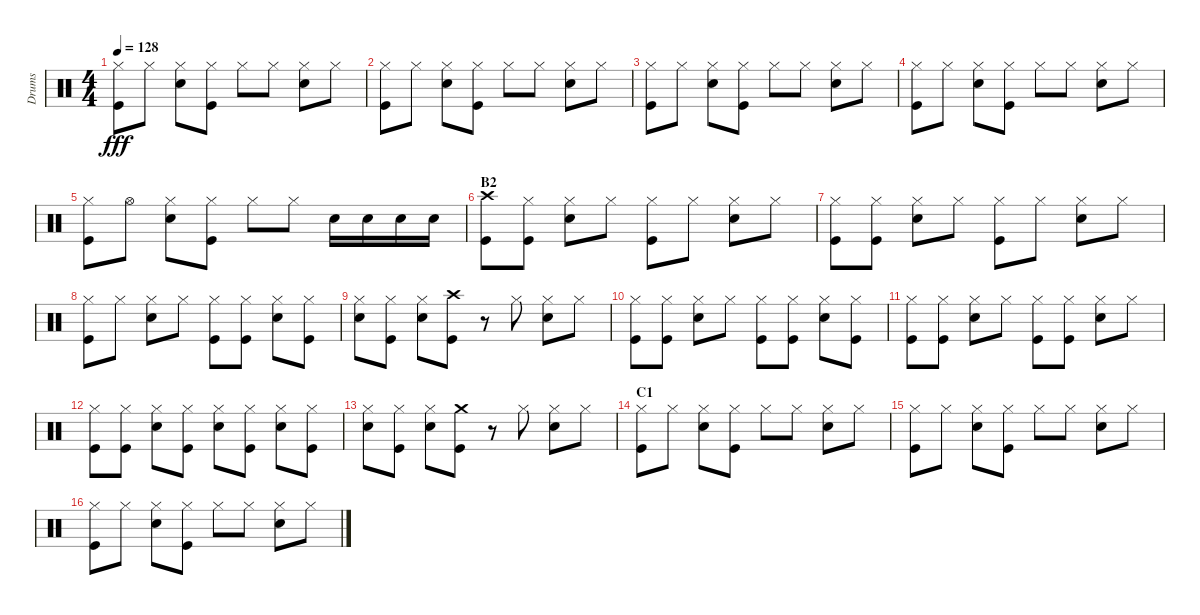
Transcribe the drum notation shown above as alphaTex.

\track ("Drums" "Drums") {instrument percussion}
\staff {score}
\articulation defaults
\ts (4 4)
\tempo 128
\clef neutral
\ks c
("Hi-Hat (closed)" "Kick (hit)").8{dy fff} "Hi-Hat (closed)".8 ("Hi-Hat (closed)" "Snare (hit) 2").8 ("Hi-Hat (closed)" "Kick (hit)").8 "Hi-Hat (closed)".8 "Hi-Hat (closed)".8 ("Hi-Hat (closed)" "Snare (hit) 2").8 "Hi-Hat (closed)".8 |
("Hi-Hat (closed)" "Kick (hit)").8 "Hi-Hat (closed)".8 ("Hi-Hat (closed)" "Snare (hit) 2").8 ("Hi-Hat (closed)" "Kick (hit)").8 "Hi-Hat (closed)".8 "Hi-Hat (closed)".8 ("Hi-Hat (closed)" "Snare (hit) 2").8 "Hi-Hat (closed)".8 |
("Hi-Hat (closed)" "Kick (hit)").8 "Hi-Hat (closed)".8 ("Hi-Hat (closed)" "Snare (hit) 2").8 ("Hi-Hat (closed)" "Kick (hit)").8 "Hi-Hat (closed)".8 "Hi-Hat (closed)".8 ("Hi-Hat (closed)" "Snare (hit) 2").8 "Hi-Hat (closed)".8 |
("Hi-Hat (closed)" "Kick (hit)").8 "Hi-Hat (closed)".8 ("Hi-Hat (closed)" "Snare (hit) 2").8 ("Hi-Hat (closed)" "Kick (hit)").8 "Hi-Hat (closed)".8 "Hi-Hat (closed)".8 ("Hi-Hat (closed)" "Snare (hit) 2").8 "Hi-Hat (closed)".8 |
("Hi-Hat (closed)" "Kick (hit)").8 "Hi-Hat (open)".8 ("Hi-Hat (closed)" "Snare (hit) 2").8 ("Hi-Hat (closed)" "Kick (hit)").8 "Hi-Hat (closed)".8 "Hi-Hat (closed)".8 "Snare (hit) 2".16 "Snare (hit) 2".16 "Snare (hit) 2".16 "Snare (hit) 2".16 |
\section ("" "B2")
("Crash high (hit)" "Kick (hit)").8 ("Hi-Hat (closed)" "Kick (hit)").8 ("Hi-Hat (closed)" "Snare (hit) 2").8 "Hi-Hat (closed)".8 ("Hi-Hat (closed)" "Kick (hit)").8 "Hi-Hat (closed)".8 ("Hi-Hat (closed)" "Snare (hit) 2").8 "Hi-Hat (closed)".8 |
("Hi-Hat (closed)" "Kick (hit)").8 ("Hi-Hat (closed)" "Kick (hit)").8 ("Hi-Hat (closed)" "Snare (hit) 2").8 "Hi-Hat (closed)".8 ("Hi-Hat (closed)" "Kick (hit)").8 "Hi-Hat (closed)".8 ("Hi-Hat (closed)" "Snare (hit) 2").8 "Hi-Hat (closed)".8 |
("Hi-Hat (closed)" "Kick (hit)").8 "Hi-Hat (closed)".8 ("Hi-Hat (closed)" "Snare (hit) 2").8 "Hi-Hat (closed)".8 ("Hi-Hat (closed)" "Kick (hit)").8 ("Hi-Hat (closed)" "Kick (hit)").8 ("Hi-Hat (closed)" "Snare (hit) 2").8 ("Hi-Hat (closed)" "Kick (hit)").8 |
("Hi-Hat (closed)" "Snare (hit) 2").8 ("Hi-Hat (closed)" "Kick (hit)").8 ("Hi-Hat (closed)" "Snare (hit) 2").8 ("Crash high (hit)" "Kick (hit)").8 r.8 "Hi-Hat (closed)".8 ("Hi-Hat (closed)" "Snare (hit) 2").8 "Hi-Hat (closed)".8 |
("Hi-Hat (closed)" "Kick (hit)").8 ("Hi-Hat (closed)" "Kick (hit)").8 ("Hi-Hat (closed)" "Snare (hit) 2").8 "Hi-Hat (closed)".8 ("Hi-Hat (closed)" "Kick (hit)").8 ("Hi-Hat (closed)" "Kick (hit)").8 ("Hi-Hat (closed)" "Snare (hit) 2").8 ("Hi-Hat (closed)" "Kick (hit)").8 |
("Hi-Hat (closed)" "Kick (hit)").8 ("Hi-Hat (closed)" "Kick (hit)").8 ("Hi-Hat (closed)" "Snare (hit) 2").8 "Hi-Hat (closed)".8 ("Hi-Hat (closed)" "Kick (hit)").8 ("Hi-Hat (closed)" "Kick (hit)").8 ("Hi-Hat (closed)" "Snare (hit) 2").8 "Hi-Hat (closed)".8 |
("Hi-Hat (closed)" "Kick (hit)").8 ("Hi-Hat (closed)" "Kick (hit)").8 ("Hi-Hat (closed)" "Snare (hit) 2").8 ("Hi-Hat (closed)" "Kick (hit)").8 ("Hi-Hat (closed)" "Snare (hit) 2").8 ("Hi-Hat (closed)" "Kick (hit)").8 ("Hi-Hat (closed)" "Snare (hit) 2").8 ("Hi-Hat (closed)" "Kick (hit)").8 |
("Hi-Hat (closed)" "Snare (hit) 2").8 ("Hi-Hat (closed)" "Kick (hit)").8 ("Hi-Hat (closed)" "Snare (hit) 2").8 ("Crash medium (hit)" "Kick (hit)").8 r.8 "Hi-Hat (closed)".8 ("Hi-Hat (closed)" "Snare (hit) 2").8 "Hi-Hat (closed)".8 |
\section ("" "C1")
("Hi-Hat (closed)" "Kick (hit)").8 "Hi-Hat (closed)".8 ("Hi-Hat (closed)" "Snare (hit) 2").8 ("Hi-Hat (closed)" "Kick (hit)").8 "Hi-Hat (closed)".8 "Hi-Hat (closed)".8 ("Hi-Hat (closed)" "Snare (hit) 2").8 "Hi-Hat (closed)".8 |
("Hi-Hat (closed)" "Kick (hit)").8 "Hi-Hat (closed)".8 ("Hi-Hat (closed)" "Snare (hit) 2").8 ("Hi-Hat (closed)" "Kick (hit)").8 "Hi-Hat (closed)".8 "Hi-Hat (closed)".8 ("Hi-Hat (closed)" "Snare (hit) 2").8 "Hi-Hat (closed)".8 |
("Hi-Hat (closed)" "Kick (hit)").8 "Hi-Hat (closed)".8 ("Hi-Hat (closed)" "Snare (hit) 2").8 ("Hi-Hat (closed)" "Kick (hit)").8 "Hi-Hat (closed)".8 "Hi-Hat (closed)".8 ("Hi-Hat (closed)" "Snare (hit) 2").8 "Hi-Hat (closed)".8
